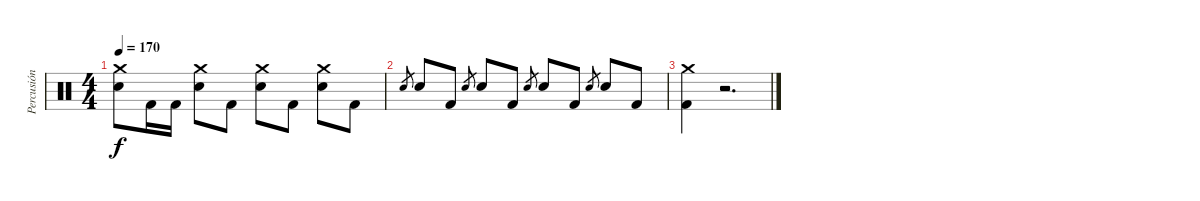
\track ("Percusión" "Percusión") {instrument percussion}
\staff {score}
\articulation defaults
\ts (4 4)
\tempo 170
\clef neutral
\ks c
("Crash medium (hit)" "Snare (hit) 2").8{dy f} "Kick (hit) 2".16 "Kick (hit) 2".16 ("Crash medium (hit)" "Snare (hit) 2").8 "Kick (hit) 2".8 ("Crash medium (hit)" "Snare (hit) 2").8 "Kick (hit) 2".8 ("Crash medium (hit)" "Snare (hit) 2").8 "Kick (hit) 2".8 |
"Snare (hit) 2".8{gr} "Snare (hit) 2".8 "Kick (hit) 2".8 "Snare (hit) 2".8{gr} "Snare (hit) 2".8 "Kick (hit) 2".8 "Snare (hit) 2".8{gr} "Snare (hit) 2".8 "Kick (hit) 2".8 "Snare (hit) 2".8{gr} "Snare (hit) 2".8 "Kick (hit) 2".8 |
("Crash medium (hit)" "Kick (hit) 2").4 r.2{d}
